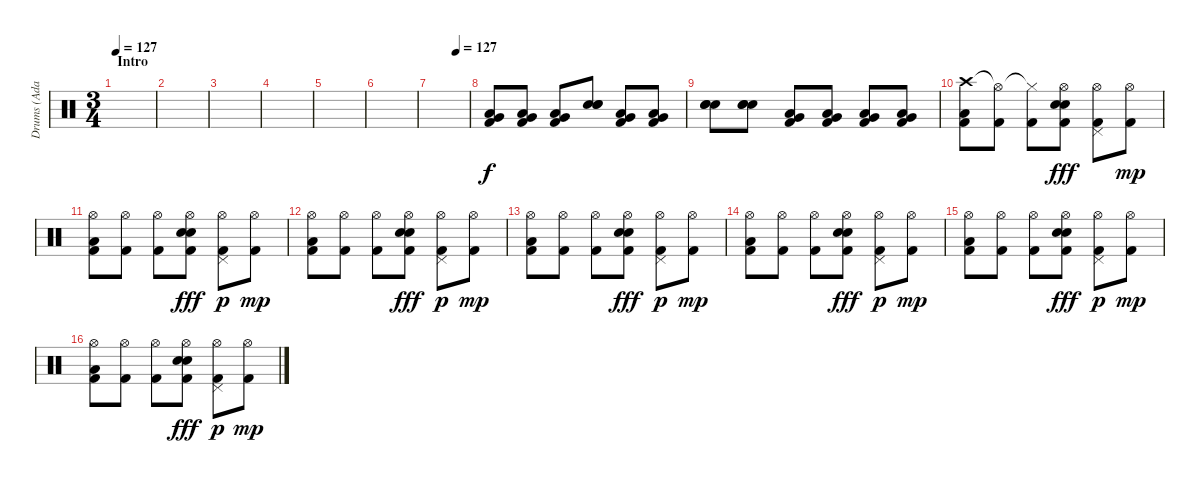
\track ("Drums (Adam)" "Drums (Ada") {instrument percussion}
\staff {score}
\articulation defaults
\ts (3 4)
\section ("" "Intro")
\tempo 127
\tempo 58
\tempo 127
\clef neutral
\ks c
|
|
|
|
|
|
\tempo (127 0.6666666666666666)
|
("Very Low Tom (hit)" "Low Tom (hit)" "Kick (hit) 2").8 ("Very Low Tom (hit)" "Low Tom (hit)" "Kick (hit) 2").8 ("Very Low Tom (hit)" "Low Tom (hit)" "Kick (hit) 2").8 ("Electric Snare (hit)" "Electric Snare (hit)" "Snare (hit) 2").8 ("Very Low Tom (hit)" "Low Tom (hit)" "Kick (hit) 2").8 ("Very Low Tom (hit)" "Low Tom (hit)" "Kick (hit) 2").8 |
("Electric Snare (hit)" "Electric Snare (hit)" "Snare (hit) 2").8 ("Electric Snare (hit)" "Electric Snare (hit)" "Snare (hit) 2").8 ("Very Low Tom (hit)" "Low Tom (hit)" "Kick (hit) 2").8 ("Very Low Tom (hit)" "Low Tom (hit)" "Kick (hit) 2").8 ("Very Low Tom (hit)" "Low Tom (hit)" "Kick (hit) 2").8 ("Very Low Tom (hit)" "Low Tom (hit)" "Kick (hit) 2").8 |
("Crash high (hit)" "Low Tom (hit)" "Kick (hit) 2").8 ("Hi-Hat (open)"{t} "Kick (hit) 2").8 ("Hi-Hat (closed)"{t} "Kick (hit) 2").8 ("Hi-Hat (open)" "Electric Snare (hit)" "Electric Snare (hit)" "Kick (hit) 2").8{dy fff} ("Hi-Hat (open)" "Pedal Hi-Hat (hit)" "Kick (hit) 2").8 ("Hi-Hat (open)" "Kick (hit) 2").8{dy mp} |
("Hi-Hat (open)" "Low Tom (hit)" "Kick (hit) 2").8 ("Hi-Hat (open)" "Kick (hit) 2").8 ("Hi-Hat (open)" "Kick (hit) 2").8 ("Hi-Hat (open)" "Electric Snare (hit)" "Electric Snare (hit)" "Kick (hit) 2").8{dy fff} ("Hi-Hat (open)" "Pedal Hi-Hat (hit)" "Kick (hit) 2").8{dy p} ("Hi-Hat (open)" "Kick (hit) 2").8{dy mp} |
("Hi-Hat (open)" "Low Tom (hit)" "Kick (hit) 2").8 ("Hi-Hat (open)" "Kick (hit) 2").8 ("Hi-Hat (open)" "Kick (hit) 2").8 ("Hi-Hat (open)" "Electric Snare (hit)" "Electric Snare (hit)" "Kick (hit) 2").8{dy fff} ("Hi-Hat (open)" "Pedal Hi-Hat (hit)" "Kick (hit) 2").8{dy p} ("Hi-Hat (open)" "Kick (hit) 2").8{dy mp} |
("Hi-Hat (open)" "Low Tom (hit)" "Kick (hit) 2").8 ("Hi-Hat (open)" "Kick (hit) 2").8 ("Hi-Hat (open)" "Kick (hit) 2").8 ("Hi-Hat (open)" "Electric Snare (hit)" "Electric Snare (hit)" "Kick (hit) 2").8{dy fff} ("Hi-Hat (open)" "Pedal Hi-Hat (hit)" "Kick (hit) 2").8{dy p} ("Hi-Hat (open)" "Kick (hit) 2").8{dy mp} |
("Hi-Hat (open)" "Low Tom (hit)" "Kick (hit) 2").8 ("Hi-Hat (open)" "Kick (hit) 2").8 ("Hi-Hat (open)" "Kick (hit) 2").8 ("Hi-Hat (open)" "Electric Snare (hit)" "Electric Snare (hit)" "Kick (hit) 2").8{dy fff} ("Hi-Hat (open)" "Pedal Hi-Hat (hit)" "Kick (hit) 2").8{dy p} ("Hi-Hat (open)" "Kick (hit) 2").8{dy mp} |
("Hi-Hat (open)" "Low Tom (hit)" "Kick (hit) 2").8 ("Hi-Hat (open)" "Kick (hit) 2").8 ("Hi-Hat (open)" "Kick (hit) 2").8 ("Hi-Hat (open)" "Electric Snare (hit)" "Electric Snare (hit)" "Kick (hit) 2").8{dy fff} ("Hi-Hat (open)" "Pedal Hi-Hat (hit)" "Kick (hit) 2").8{dy p} ("Hi-Hat (open)" "Kick (hit) 2").8{dy mp} |
("Hi-Hat (open)" "Low Tom (hit)" "Kick (hit) 2").8 ("Hi-Hat (open)" "Kick (hit) 2").8 ("Hi-Hat (open)" "Kick (hit) 2").8 ("Hi-Hat (open)" "Electric Snare (hit)" "Electric Snare (hit)" "Kick (hit) 2").8{dy fff} ("Hi-Hat (open)" "Pedal Hi-Hat (hit)" "Kick (hit) 2").8{dy p} ("Hi-Hat (open)" "Kick (hit) 2").8{dy mp}
